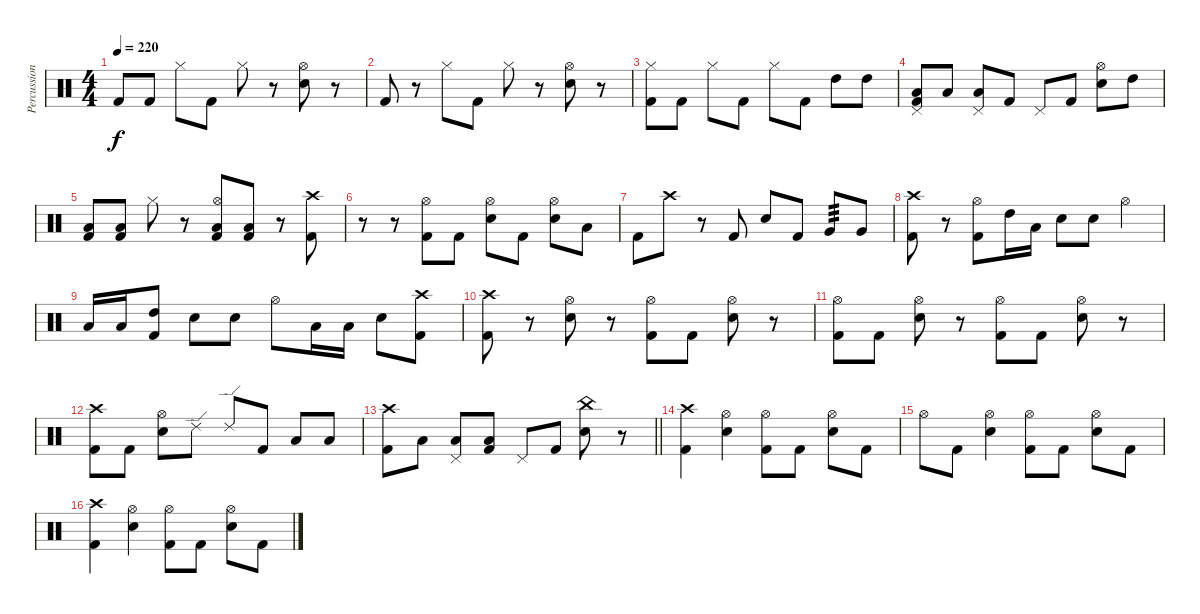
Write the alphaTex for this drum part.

\track ("Percussion" "Percussion") {instrument percussion}
\staff {score}
\articulation defaults
\ts (4 4)
\tempo 220
\clef neutral
\ks c "Kick (hit) 2".8{dy f} "Kick (hit) 2".8 "Hi-Hat (closed)".8 "Kick (hit) 2".8 "Hi-Hat (closed)".8
r.8 ("Hi-Hat (open)" "Electric Snare (hit)").8 r.8 |
"Kick (hit) 2".8 r.8 "Hi-Hat (closed)".8 "Kick (hit) 2".8 "Hi-Hat (closed)".8 r.8 ("Hi-Hat (open)" "Electric Snare (hit)").8 r.8 |
("Hi-Hat (closed)" "Kick (hit) 2").8 "Kick (hit) 2".8 "Hi-Hat (closed)".8 "Kick (hit) 2".8 "Hi-Hat (closed)".8 "Kick (hit) 2".8 "High Tom (hit)".8 "High Tom (hit)".8 |
("Pedal Hi-Hat (hit)" "Low Tom (hit)" "Kick (hit) 2").8 "Low Tom (hit)".8 ("Pedal Hi-Hat (hit)" "Low Floor Tom (hit)").8 "Kick (hit) 2".8 "Pedal Hi-Hat (hit)".8 "Kick (hit) 2".8 ("Hi-Hat (open)" "Electric Snare (hit)").8 "High Tom (hit)".8 |
("Low Floor Tom (hit)" "Kick (hit) 2").8 ("Low Floor Tom (hit)" "Kick (hit) 2").8 "Hi-Hat (closed)".8 r.8 ("Hi-Hat (open)" "Low Floor Tom (hit)" "Kick (hit) 2").8 ("Low Floor Tom (hit)" "Kick (hit) 2").8 r.8 ("Crash high (hit)" "Kick (hit) 2").8 |
r.8 r.8 ("Hi-Hat (open)" "Kick (hit) 2").8 "Kick (hit) 2".8 ("Hi-Hat (open)" "Electric Snare (hit)").8 "Kick (hit) 2".8 ("Hi-Hat (open)" "Electric Snare (hit)").8 "Low Floor Tom (hit)".8 |
"Kick (hit) 2".8 "Crash high (hit)".8 r.8 "Kick (hit) 2".8 "Electric Snare (hit)".8 "Kick (hit) 2".8 "Very Low Tom (hit)".8{tp 3} "Very Low Tom (hit)".8 |
("Crash high (hit)" "Kick (hit) 2").8 r.8 ("Hi-Hat (open)" "Kick (hit) 2").8 "High Tom (hit)".16 "Low Tom (hit)".16 "Electric Snare (hit)".8 "Electric Snare (hit)".8 "Hi-Hat (open)".4 |
"Low Tom (hit)".16 "Low Tom (hit)".16 ("High Tom (hit)" "Kick (hit) 2").8 "Electric Snare (hit)".8 "Electric Snare (hit)".8 "Hi-Hat (open)".8 "Low Tom (hit)".16 "Low Tom (hit)".16 "Electric Snare (hit)".8 ("Crash high (hit)" "Kick (hit) 2").8 |
("Crash high (hit)" "Kick (hit) 2").8 r.8 ("Hi-Hat (open)" "Electric Snare (hit)").8 r.8 ("Hi-Hat (open)" "Kick (hit) 2").8 "Kick (hit) 2".8 ("Hi-Hat (open)" "Electric Snare (hit)").8 r.8 |
("Hi-Hat (open)" "Kick (hit) 2").8 "Kick (hit) 2".8 ("Hi-Hat (open)" "Electric Snare (hit)").8 r.8 ("Hi-Hat (open)" "Kick (hit) 2").8 "Kick (hit) 2".8 ("Hi-Hat (open)" "Electric Snare (hit)").8 r.8 |
("Crash high (hit)" "Kick (hit) 2").8 "Kick (hit) 2".8 ("Hi-Hat (open)" "Electric Snare (hit)").8 "Ride (edge) 2".8 "Ride (edge) 2".8 "Kick (hit) 2".8 "Low Tom (hit)".8 "Low Floor Tom (hit)".8 |
\barLineRight lightlight
("Crash high (hit)" "Kick (hit) 2").8 "Low Tom (hit)".8 ("Pedal Hi-Hat (hit)" "Low Floor Tom (hit)").8 ("Low Floor Tom (hit)" "Kick (hit) 2").8 "Pedal Hi-Hat (hit)".8 "Kick (hit) 2".8 ("China (hit)" "Electric Snare (hit)").8 r.8 |
("Crash high (hit)" "Kick (hit) 2").4 ("Hi-Hat (open)" "Electric Snare (hit)").4 ("Hi-Hat (open)" "Kick (hit) 2").8 "Kick (hit) 2".8 ("Hi-Hat (open)" "Electric Snare (hit)").8 "Kick (hit) 2".8 |
"Hi-Hat (open)".8 "Kick (hit) 2".8 ("Hi-Hat (open)" "Electric Snare (hit)").4 ("Hi-Hat (open)" "Kick (hit) 2").8 "Kick (hit) 2".8 ("Hi-Hat (open)" "Electric Snare (hit)").8 "Kick (hit) 2".8 |
("Crash high (hit)" "Kick (hit) 2").4 ("Hi-Hat (open)" "Electric Snare (hit)").4 ("Hi-Hat (open)" "Kick (hit) 2").8 "Kick (hit) 2".8 ("Hi-Hat (open)" "Electric Snare (hit)").8 "Kick (hit) 2".8
